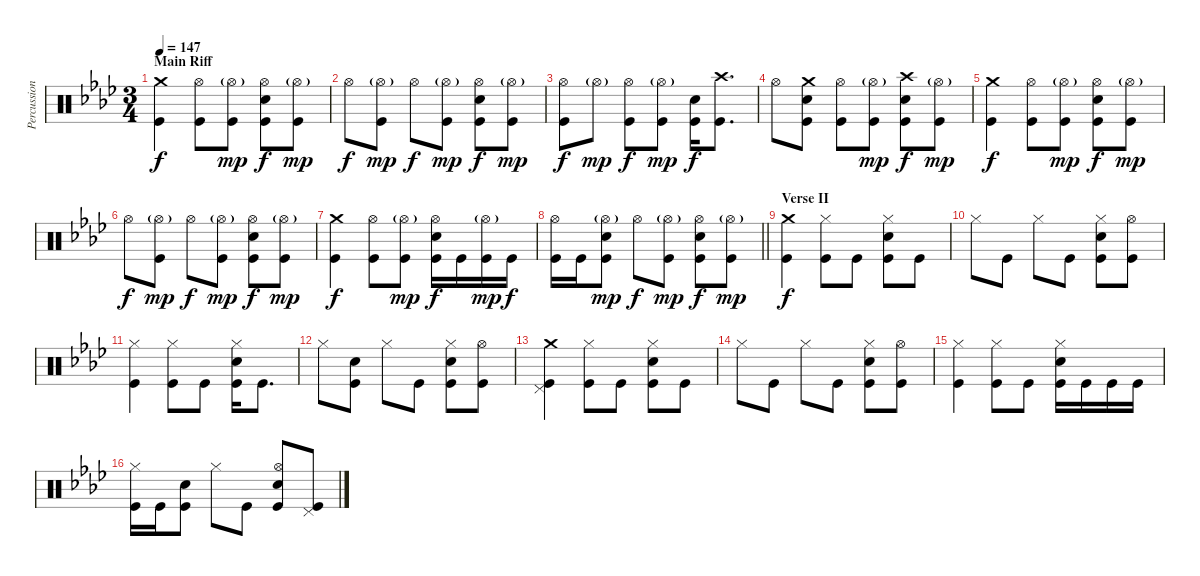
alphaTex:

\track ("Percussion" "Percussion") {instrument percussion}
\staff {score}
\articulation defaults
\ts (3 4)
\section ("" "Main Riff")
\tempo 147
\clef neutral
\ks ab
("Crash medium (hit)" "Kick (hit)").4{dy f} ("Hi-Hat (open)" "Kick (hit)").8 ("Hi-Hat (open)"{g} "Kick (hit)").8{dy mp} ("Hi-Hat (open)" "Electric Snare (hit)" "Kick (hit)").8{dy f} ("Hi-Hat (open)"{g} "Kick (hit)").8{dy mp} |
"Hi-Hat (open)".8{dy f} ("Hi-Hat (open)"{g} "Kick (hit)").8{dy mp} "Hi-Hat (open)".8{dy f} ("Hi-Hat (open)"{g} "Kick (hit)").8{dy mp} ("Hi-Hat (open)" "Electric Snare (hit)" "Kick (hit)").8{dy f} ("Hi-Hat (open)"{g} "Kick (hit)").8{dy mp} |
("Hi-Hat (open)" "Kick (hit)").8{dy f} "Hi-Hat (open)"{g}.8{dy mp} ("Hi-Hat (open)" "Kick (hit)").8{dy f} ("Hi-Hat (open)"{g} "Kick (hit)").8{dy mp} ("Electric Snare (hit)" "Kick (hit)").16{dy f} ("Crash high (hit)" "Kick (hit)").8{d} |
"Hi-Hat (open)".8 ("Crash medium (hit)" "Electric Snare (hit)" "Kick (hit)").8 ("Hi-Hat (open)" "Kick (hit)").8 ("Hi-Hat (open)"{g} "Kick (hit)").8{dy mp} ("Crash high (hit)" "Electric Snare (hit)" "Kick (hit)").8{dy f} ("Hi-Hat (open)"{g} "Kick (hit)").8{dy mp} |
("Crash medium (hit)" "Kick (hit)").4{dy f} ("Hi-Hat (open)" "Kick (hit)").8 ("Hi-Hat (open)"{g} "Kick (hit)").8{dy mp} ("Hi-Hat (open)" "Electric Snare (hit)" "Kick (hit)").8{dy f} ("Hi-Hat (open)"{g} "Kick (hit)").8{dy mp} |
"Hi-Hat (open)".8{dy f} ("Hi-Hat (open)"{g} "Kick (hit)").8{dy mp} "Hi-Hat (open)".8{dy f} ("Hi-Hat (open)"{g} "Kick (hit)").8{dy mp} ("Hi-Hat (open)" "Electric Snare (hit)" "Kick (hit)").8{dy f} ("Hi-Hat (open)"{g} "Kick (hit)").8{dy mp} |
("Crash medium (hit)" "Kick (hit)").4{dy f} ("Hi-Hat (open)" "Kick (hit)").8 ("Hi-Hat (open)"{g} "Kick (hit)").8{dy mp} ("Hi-Hat (open)" "Electric Snare (hit)" "Kick (hit)").16{dy f} "Kick (hit)".16 ("Hi-Hat (open)"{g} "Kick (hit)").16{dy mp} "Kick (hit)".16{dy f} |
\barLineRight lightlight
("Hi-Hat (open)" "Kick (hit)").16 "Kick (hit)".16 ("Hi-Hat (open)"{g} "Electric Snare (hit)" "Kick (hit)").8{dy mp} "Hi-Hat (open)".8{dy f} ("Hi-Hat (open)"{g} "Kick (hit)").8{dy mp} ("Hi-Hat (open)" "Electric Snare (hit)" "Kick (hit)").8{dy f} ("Hi-Hat (open)"{g} "Kick (hit)").8{dy mp} |
\section ("" "Verse II")
("Crash medium (hit)" "Kick (hit)").4{dy f} ("Hi-Hat (closed)" "Kick (hit)").8 "Kick (hit)".8 ("Hi-Hat (closed)" "Electric Snare (hit)" "Kick (hit)").8 "Kick (hit)".8 |
"Hi-Hat (closed)".8 "Kick (hit)".8 "Hi-Hat (closed)".8 "Kick (hit)".8 ("Hi-Hat (closed)" "Electric Snare (hit)" "Kick (hit)").8 ("Hi-Hat (open)" "Kick (hit)").8 |
("Hi-Hat (closed)" "Kick (hit)").4 ("Hi-Hat (closed)" "Kick (hit)").8 "Kick (hit)".8 ("Hi-Hat (closed)" "Electric Snare (hit)" "Kick (hit)").16 "Kick (hit)".8{d} |
"Hi-Hat (closed)".8 ("Electric Snare (hit)" "Kick (hit)").8 "Hi-Hat (closed)".8 "Kick (hit)".8 ("Hi-Hat (closed)" "Electric Snare (hit)" "Kick (hit)").8 ("Hi-Hat (open)" "Kick (hit)").8 |
("Crash medium (hit)" "Pedal Hi-Hat (hit)" "Kick (hit)").4 ("Hi-Hat (closed)" "Kick (hit)").8 "Kick (hit)".8 ("Hi-Hat (closed)" "Electric Snare (hit)" "Kick (hit)").8 "Kick (hit)".8 |
"Hi-Hat (closed)".8 "Kick (hit)".8 "Hi-Hat (closed)".8 "Kick (hit)".8 ("Hi-Hat (closed)" "Electric Snare (hit)" "Kick (hit)").8 ("Hi-Hat (open)" "Kick (hit)").8 |
("Hi-Hat (closed)" "Kick (hit)").4 ("Hi-Hat (closed)" "Kick (hit)").8 "Kick (hit)".8 ("Hi-Hat (closed)" "Electric Snare (hit)" "Kick (hit)").16 "Kick (hit)".16 "Kick (hit)".16 "Kick (hit)".16 |
("Hi-Hat (closed)" "Kick (hit)").16 "Kick (hit)".16 ("Electric Snare (hit)" "Kick (hit)").8 "Hi-Hat (closed)".8 "Kick (hit)".8 ("Hi-Hat (open)" "Electric Snare (hit)" "Kick (hit)").8 ("Pedal Hi-Hat (hit)" "Kick (hit)").8
